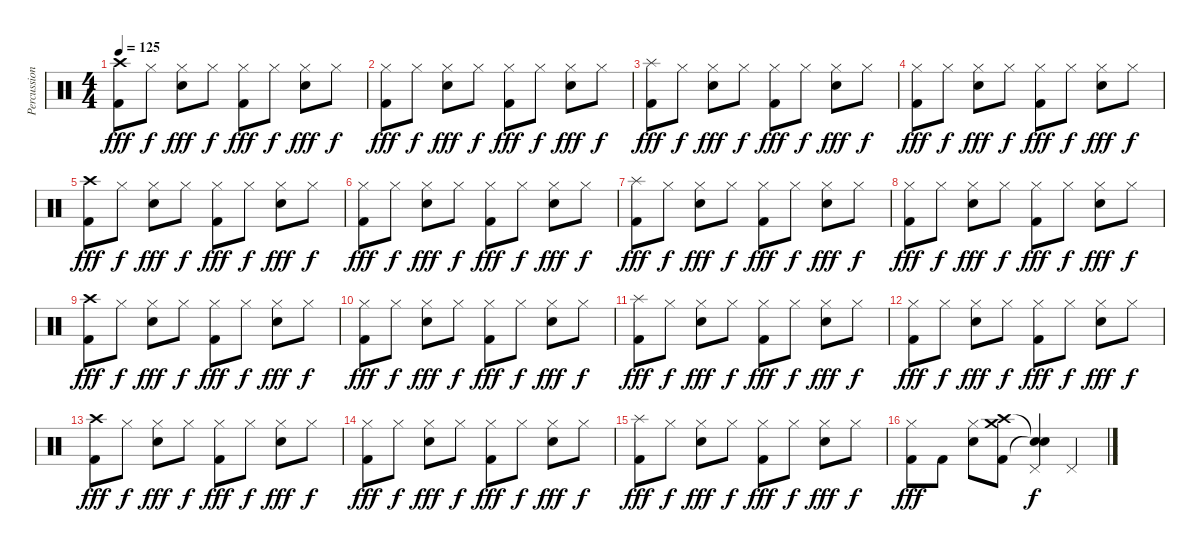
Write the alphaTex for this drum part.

\track ("Percussions" "Percussion") {instrument percussion}
\staff {score}
\articulation defaults
\ts (4 4)
\tempo 125
\clef neutral
\ks c
("Crash high (hit)" "Kick (hit) 2").8{dy fff} "Hi-Hat (closed)".8{dy f} ("Hi-Hat (closed)" "Electric Snare (hit)").8{dy fff} "Hi-Hat (closed)".8{dy f} ("Hi-Hat (closed)" "Kick (hit) 2").8{dy fff} "Hi-Hat (closed)".8{dy f} ("Hi-Hat (closed)" "Electric Snare (hit)").8{dy fff} "Hi-Hat (closed)".8{dy f} |
("Hi-Hat (closed)" "Kick (hit) 2").8{dy fff} "Hi-Hat (closed)".8{dy f} ("Hi-Hat (closed)" "Electric Snare (hit)").8{dy fff} "Hi-Hat (closed)".8{dy f} ("Hi-Hat (closed)" "Kick (hit) 2").8{dy fff} "Hi-Hat (closed)".8{dy f} ("Hi-Hat (closed)" "Electric Snare (hit)").8{dy fff} "Hi-Hat (closed)".8{dy f} |
("Splash (hit)" "Kick (hit) 2").8{dy fff} "Hi-Hat (closed)".8{dy f} ("Hi-Hat (closed)" "Electric Snare (hit)").8{dy fff} "Hi-Hat (closed)".8{dy f} ("Hi-Hat (closed)" "Kick (hit) 2").8{dy fff} "Hi-Hat (closed)".8{dy f} ("Hi-Hat (closed)" "Electric Snare (hit)").8{dy fff} "Hi-Hat (closed)".8{dy f} |
("Hi-Hat (closed)" "Kick (hit) 2").8{dy fff} "Hi-Hat (closed)".8{dy f} ("Hi-Hat (closed)" "Electric Snare (hit)").8{dy fff} "Hi-Hat (closed)".8{dy f} ("Hi-Hat (closed)" "Kick (hit) 2").8{dy fff} "Hi-Hat (closed)".8{dy f} ("Hi-Hat (closed)" "Electric Snare (hit)").8{dy fff} "Hi-Hat (closed)".8{dy f} |
("Crash high (hit)" "Kick (hit) 2").8{dy fff} "Hi-Hat (closed)".8{dy f} ("Hi-Hat (closed)" "Electric Snare (hit)").8{dy fff} "Hi-Hat (closed)".8{dy f} ("Hi-Hat (closed)" "Kick (hit) 2").8{dy fff} "Hi-Hat (closed)".8{dy f} ("Hi-Hat (closed)" "Electric Snare (hit)").8{dy fff} "Hi-Hat (closed)".8{dy f} |
("Hi-Hat (closed)" "Kick (hit) 2").8{dy fff} "Hi-Hat (closed)".8{dy f} ("Hi-Hat (closed)" "Electric Snare (hit)").8{dy fff} "Hi-Hat (closed)".8{dy f} ("Hi-Hat (closed)" "Kick (hit) 2").8{dy fff} "Hi-Hat (closed)".8{dy f} ("Hi-Hat (closed)" "Electric Snare (hit)").8{dy fff} "Hi-Hat (closed)".8{dy f} |
("Splash (hit)" "Kick (hit) 2").8{dy fff} "Hi-Hat (closed)".8{dy f} ("Hi-Hat (closed)" "Electric Snare (hit)").8{dy fff} "Hi-Hat (closed)".8{dy f} ("Hi-Hat (closed)" "Kick (hit) 2").8{dy fff} "Hi-Hat (closed)".8{dy f} ("Hi-Hat (closed)" "Electric Snare (hit)").8{dy fff} "Hi-Hat (closed)".8{dy f} |
("Hi-Hat (closed)" "Kick (hit) 2").8{dy fff} "Hi-Hat (closed)".8{dy f} ("Hi-Hat (closed)" "Electric Snare (hit)").8{dy fff} "Hi-Hat (closed)".8{dy f} ("Hi-Hat (closed)" "Kick (hit) 2").8{dy fff} "Hi-Hat (closed)".8{dy f} ("Hi-Hat (closed)" "Electric Snare (hit)").8{dy fff} "Hi-Hat (closed)".8{dy f} |
("Crash high (hit)" "Kick (hit) 2").8{dy fff} "Hi-Hat (closed)".8{dy f} ("Hi-Hat (closed)" "Electric Snare (hit)").8{dy fff} "Hi-Hat (closed)".8{dy f} ("Hi-Hat (closed)" "Kick (hit) 2").8{dy fff} "Hi-Hat (closed)".8{dy f} ("Hi-Hat (closed)" "Electric Snare (hit)").8{dy fff} "Hi-Hat (closed)".8{dy f} |
("Hi-Hat (closed)" "Kick (hit) 2").8{dy fff} "Hi-Hat (closed)".8{dy f} ("Hi-Hat (closed)" "Electric Snare (hit)").8{dy fff} "Hi-Hat (closed)".8{dy f} ("Hi-Hat (closed)" "Kick (hit) 2").8{dy fff} "Hi-Hat (closed)".8{dy f} ("Hi-Hat (closed)" "Electric Snare (hit)").8{dy fff} "Hi-Hat (closed)".8{dy f} |
("Splash (hit)" "Kick (hit) 2").8{dy fff} "Hi-Hat (closed)".8{dy f} ("Hi-Hat (closed)" "Electric Snare (hit)").8{dy fff} "Hi-Hat (closed)".8{dy f} ("Hi-Hat (closed)" "Kick (hit) 2").8{dy fff} "Hi-Hat (closed)".8{dy f} ("Hi-Hat (closed)" "Electric Snare (hit)").8{dy fff} "Hi-Hat (closed)".8{dy f} |
("Hi-Hat (closed)" "Kick (hit) 2").8{dy fff} "Hi-Hat (closed)".8{dy f} ("Hi-Hat (closed)" "Electric Snare (hit)").8{dy fff} "Hi-Hat (closed)".8{dy f} ("Hi-Hat (closed)" "Kick (hit) 2").8{dy fff} "Hi-Hat (closed)".8{dy f} ("Hi-Hat (closed)" "Electric Snare (hit)").8{dy fff} "Hi-Hat (closed)".8{dy f} |
("Crash high (hit)" "Kick (hit) 2").8{dy fff} "Hi-Hat (closed)".8{dy f} ("Hi-Hat (closed)" "Electric Snare (hit)").8{dy fff} "Hi-Hat (closed)".8{dy f} ("Hi-Hat (closed)" "Kick (hit) 2").8{dy fff} "Hi-Hat (closed)".8{dy f} ("Hi-Hat (closed)" "Electric Snare (hit)").8{dy fff} "Hi-Hat (closed)".8{dy f} |
("Hi-Hat (closed)" "Kick (hit) 2").8{dy fff} "Hi-Hat (closed)".8{dy f} ("Hi-Hat (closed)" "Electric Snare (hit)").8{dy fff} "Hi-Hat (closed)".8{dy f} ("Hi-Hat (closed)" "Kick (hit) 2").8{dy fff} "Hi-Hat (closed)".8{dy f} ("Hi-Hat (closed)" "Electric Snare (hit)").8{dy fff} "Hi-Hat (closed)".8{dy f} |
("Splash (hit)" "Kick (hit) 2").8{dy fff} "Hi-Hat (closed)".8{dy f} ("Hi-Hat (closed)" "Electric Snare (hit)").8{dy fff} "Hi-Hat (closed)".8{dy f} ("Hi-Hat (closed)" "Kick (hit) 2").8{dy fff} "Hi-Hat (closed)".8{dy f} ("Hi-Hat (closed)" "Electric Snare (hit)").8{dy fff} "Hi-Hat (closed)".8{dy f} |
("Hi-Hat (closed)" "Kick (hit) 2").8{dy fff} "Kick (hit) 2".8 ("Hi-Hat (closed)" "Electric Snare (hit)").8 ("Crash high (hit)" "Crash medium (hit)" "Kick (hit) 2").8 ("Snare (hit)"{t} "Pedal Hi-Hat (hit)" "Snare (hit)"{t}).4{dy f} "Pedal Hi-Hat (hit)".4
